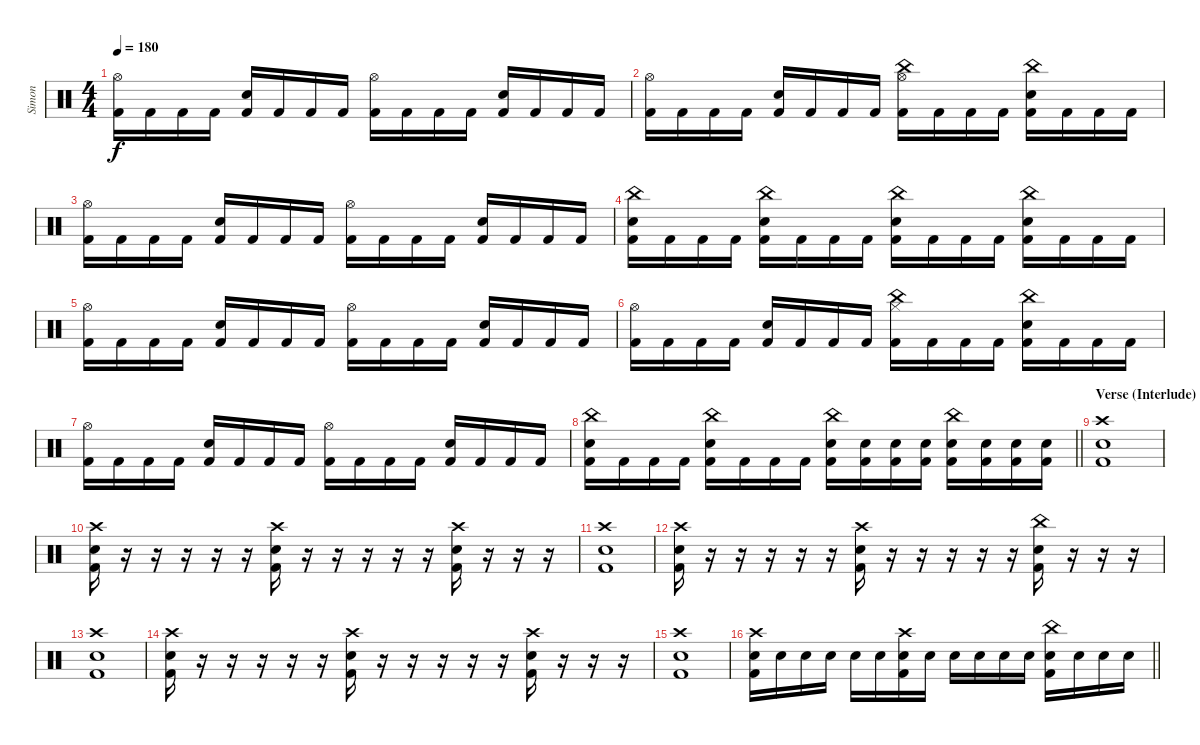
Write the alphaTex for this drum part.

\track ("Simon" "Simon") {instrument percussion}
\staff {score}
\articulation defaults
\ts (4 4)
\tempo 180
\clef neutral
\ks c
("Hi-Hat (open)" "Kick (hit) 2").16{dy f} "Kick (hit) 2".16 "Kick (hit) 2".16 "Kick (hit) 2".16 ("Electric Snare (hit)" "Kick (hit) 2").16 "Kick (hit) 2".16 "Kick (hit) 2".16 "Kick (hit) 2".16 ("Hi-Hat (open)" "Kick (hit) 2").16 "Kick (hit) 2".16 "Kick (hit) 2".16 "Kick (hit) 2".16 ("Electric Snare (hit)" "Kick (hit) 2").16 "Kick (hit) 2".16 "Kick (hit) 2".16 "Kick (hit) 2".16 |
("Hi-Hat (open)" "Kick (hit) 2").16 "Kick (hit) 2".16 "Kick (hit) 2".16 "Kick (hit) 2".16 ("Electric Snare (hit)" "Kick (hit) 2").16 "Kick (hit) 2".16 "Kick (hit) 2".16 "Kick (hit) 2".16 ("China (hit)" "Hi-Hat (open)" "Kick (hit) 2").16 "Kick (hit) 2".16 "Kick (hit) 2".16 "Kick (hit) 2".16 ("China (hit)" "Electric Snare (hit)" "Kick (hit) 2").16 "Kick (hit) 2".16 "Kick (hit) 2".16 "Kick (hit) 2".16 |
("Hi-Hat (open)" "Kick (hit) 2").16 "Kick (hit) 2".16 "Kick (hit) 2".16 "Kick (hit) 2".16 ("Electric Snare (hit)" "Kick (hit) 2").16 "Kick (hit) 2".16 "Kick (hit) 2".16 "Kick (hit) 2".16 ("Hi-Hat (open)" "Kick (hit) 2").16 "Kick (hit) 2".16 "Kick (hit) 2".16 "Kick (hit) 2".16 ("Electric Snare (hit)" "Kick (hit) 2").16 "Kick (hit) 2".16 "Kick (hit) 2".16 "Kick (hit) 2".16 |
("China (hit)" "Electric Snare (hit)" "Kick (hit) 2").16 "Kick (hit) 2".16 "Kick (hit) 2".16 "Kick (hit) 2".16 ("China (hit)" "Electric Snare (hit)" "Kick (hit) 2").16 "Kick (hit) 2".16 "Kick (hit) 2".16 "Kick (hit) 2".16 ("China (hit)" "Electric Snare (hit)" "Kick (hit) 2").16 "Kick (hit) 2".16 "Kick (hit) 2".16 "Kick (hit) 2".16 ("China (hit)" "Electric Snare (hit)" "Kick (hit) 2").16 "Kick (hit) 2".16 "Kick (hit) 2".16 "Kick (hit) 2".16 |
("Hi-Hat (open)" "Kick (hit) 2").16 "Kick (hit) 2".16 "Kick (hit) 2".16 "Kick (hit) 2".16 ("Electric Snare (hit)" "Kick (hit) 2").16 "Kick (hit) 2".16 "Kick (hit) 2".16 "Kick (hit) 2".16 ("Hi-Hat (open)" "Kick (hit) 2").16 "Kick (hit) 2".16 "Kick (hit) 2".16 "Kick (hit) 2".16 ("Electric Snare (hit)" "Kick (hit) 2").16 "Kick (hit) 2".16 "Kick (hit) 2".16 "Kick (hit) 2".16 |
("Hi-Hat (open)" "Kick (hit) 2").16 "Kick (hit) 2".16 "Kick (hit) 2".16 "Kick (hit) 2".16 ("Electric Snare (hit)" "Kick (hit) 2").16 "Kick (hit) 2".16 "Kick (hit) 2".16 "Kick (hit) 2".16 ("China (hit)" "Hi-Hat (closed)" "Kick (hit) 2").16 "Kick (hit) 2".16 "Kick (hit) 2".16 "Kick (hit) 2".16 ("China (hit)" "Electric Snare (hit)" "Kick (hit) 2").16 "Kick (hit) 2".16 "Kick (hit) 2".16 "Kick (hit) 2".16 |
("Hi-Hat (open)" "Kick (hit) 2").16 "Kick (hit) 2".16 "Kick (hit) 2".16 "Kick (hit) 2".16 ("Electric Snare (hit)" "Kick (hit) 2").16 "Kick (hit) 2".16 "Kick (hit) 2".16 "Kick (hit) 2".16 ("Hi-Hat (open)" "Kick (hit) 2").16 "Kick (hit) 2".16 "Kick (hit) 2".16 "Kick (hit) 2".16 ("Electric Snare (hit)" "Kick (hit) 2").16 "Kick (hit) 2".16 "Kick (hit) 2".16 "Kick (hit) 2".16 |
\barLineRight lightlight
("China (hit)" "Electric Snare (hit)" "Kick (hit) 2").16 "Kick (hit) 2".16 "Kick (hit) 2".16 "Kick (hit) 2".16 ("China (hit)" "Electric Snare (hit)" "Kick (hit) 2").16 "Kick (hit) 2".16 "Kick (hit) 2".16 "Kick (hit) 2".16 ("China (hit)" "Electric Snare (hit)" "Kick (hit) 2").16 ("Electric Snare (hit)" "Kick (hit) 2").16 ("Electric Snare (hit)" "Kick (hit) 2").16 ("Electric Snare (hit)" "Kick (hit) 2").16 ("China (hit)" "Electric Snare (hit)" "Kick (hit) 2").16 ("Electric Snare (hit)" "Kick (hit) 2").16 ("Electric Snare (hit)" "Kick (hit) 2").16 ("Electric Snare (hit)" "Kick (hit) 2").16 |
\section ("" "Verse (Interlude)")
("Crash high (hit)" "Kick (hit) 2" "Electric Snare (hit)").1 |
("Crash high (hit)" "Kick (hit) 2" "Electric Snare (hit)").16 r.16 r.16 r.16 r.16 r.16 ("Crash high (hit)" "Kick (hit) 2" "Electric Snare (hit)").16 r.16 r.16 r.16 r.16 r.16 ("Crash high (hit)" "Kick (hit) 2" "Electric Snare (hit)").16 r.16 r.16 r.16 |
("Crash high (hit)" "Kick (hit) 2" "Electric Snare (hit)").1 |
("Crash high (hit)" "Kick (hit) 2" "Electric Snare (hit)").16 r.16 r.16 r.16 r.16 r.16 ("Crash high (hit)" "Kick (hit) 2" "Electric Snare (hit)").16 r.16 r.16 r.16 r.16 r.16 ("China (hit)" "Kick (hit) 2" "Electric Snare (hit)").16 r.16 r.16 r.16 |
("Crash high (hit)" "Kick (hit) 2" "Electric Snare (hit)").1 |
("Crash high (hit)" "Kick (hit) 2" "Electric Snare (hit)").16 r.16 r.16 r.16 r.16 r.16 ("Crash high (hit)" "Kick (hit) 2" "Electric Snare (hit)").16 r.16 r.16 r.16 r.16 r.16 ("Crash high (hit)" "Kick (hit) 2" "Electric Snare (hit)").16 r.16 r.16 r.16 |
("Crash high (hit)" "Kick (hit) 2" "Electric Snare (hit)").1 |
\barLineRight lightlight
("Crash high (hit)" "Kick (hit) 2" "Electric Snare (hit)").16 "Electric Snare (hit)".16 "Electric Snare (hit)".16 "Electric Snare (hit)".16 "Electric Snare (hit)".16 "Electric Snare (hit)".16 ("Crash high (hit)" "Kick (hit) 2" "Electric Snare (hit)").16 "Electric Snare (hit)".16 "Electric Snare (hit)".16 "Electric Snare (hit)".16 "Electric Snare (hit)".16 "Electric Snare (hit)".16 ("China (hit)" "Kick (hit) 2" "Electric Snare (hit)").16 "Electric Snare (hit)".16 "Electric Snare (hit)".16 "Electric Snare (hit)".16
